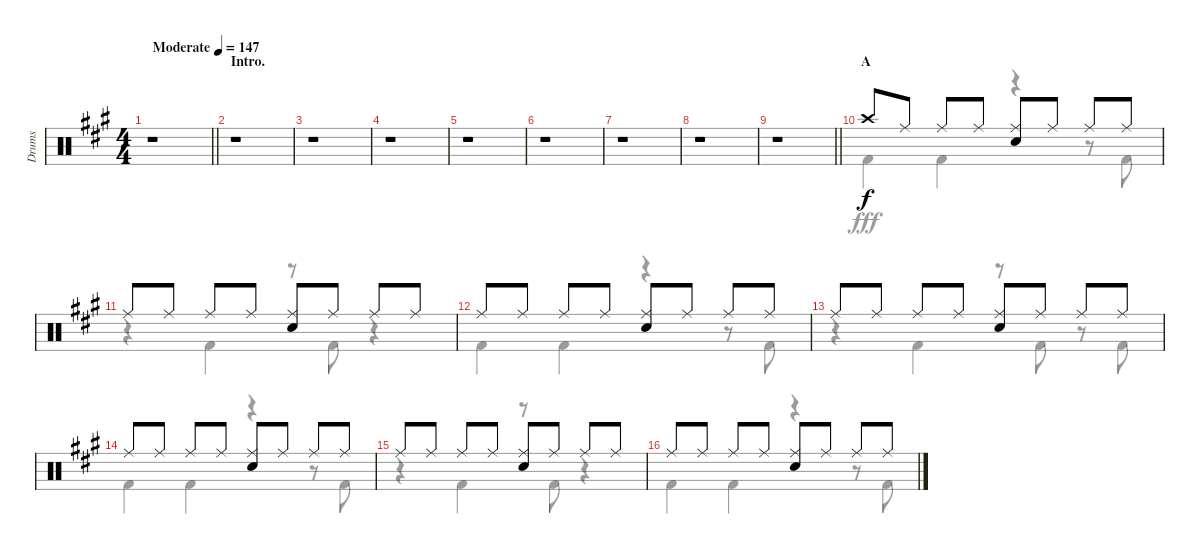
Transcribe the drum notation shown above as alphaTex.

\track ("Drums" "Drums") {instrument percussion}
\staff {score}
\articulation defaults
\voice
\ts (4 4)
\tempo (147 "Moderate")
\clef neutral
\barLineRight lightlight
\ks a
r.1{dy f} |
\section ("" "Intro.")
r.1 |
r.1 |
r.1 |
r.1 |
r.1 |
r.1 |
r.1 |
\barLineRight lightlight
r.1 |
\section ("" "A")
"Crash high (hit)".8 "Ride (middle)".8 "Ride (middle)".8 "Ride (middle)".8 ("Ride (middle)" "Snare (hit) 2").8 "Ride (middle)".8 "Ride (middle)".8 "Ride (middle)".8 |
"Ride (middle)".8 "Ride (middle)".8 "Ride (middle)".8 "Ride (middle)".8 ("Ride (middle)" "Snare (hit) 2").8 "Ride (middle)".8 "Ride (middle)".8 "Ride (middle)".8 |
"Ride (middle)".8 "Ride (middle)".8 "Ride (middle)".8 "Ride (middle)".8 ("Ride (middle)" "Snare (hit) 2").8 "Ride (middle)".8 "Ride (middle)".8 "Ride (middle)".8 |
"Ride (middle)".8 "Ride (middle)".8 "Ride (middle)".8 "Ride (middle)".8 ("Ride (middle)" "Snare (hit) 2").8 "Ride (middle)".8 "Ride (middle)".8 "Ride (middle)".8 |
"Ride (middle)".8 "Ride (middle)".8 "Ride (middle)".8 "Ride (middle)".8 ("Ride (middle)" "Snare (hit) 2").8 "Ride (middle)".8 "Ride (middle)".8 "Ride (middle)".8 |
"Ride (middle)".8 "Ride (middle)".8 "Ride (middle)".8 "Ride (middle)".8 ("Ride (middle)" "Snare (hit) 2").8 "Ride (middle)".8 "Ride (middle)".8 "Ride (middle)".8 |
"Ride (middle)".8 "Ride (middle)".8 "Ride (middle)".8 "Ride (middle)".8 ("Ride (middle)" "Snare (hit) 2").8 "Ride (middle)".8 "Ride (middle)".8 "Ride (middle)".8
\voice
\clef neutral
\ottava regular
\simile none
\barLineRight lightlight
\ks a
r.1{dy fff} |
r.1 |
r.1 |
r.1 |
r.1 |
r.1 |
r.1 |
r.1 |
\barLineRight lightlight
r.1 |
"Kick (hit) 2".4 "Kick (hit) 2".4 r.4 r.8 "Kick (hit) 2".8 |
r.4 "Kick (hit) 2".4 r.8 "Kick (hit) 2".8 r.4 |
"Kick (hit) 2".4 "Kick (hit) 2".4 r.4 r.8 "Kick (hit) 2".8 |
r.4 "Kick (hit) 2".4 r.8 "Kick (hit) 2".8 r.8 "Kick (hit) 2".8 |
"Kick (hit) 2".4 "Kick (hit) 2".4 r.4 r.8 "Kick (hit) 2".8 |
r.4 "Kick (hit) 2".4 r.8 "Kick (hit) 2".8 r.4 |
"Kick (hit) 2".4 "Kick (hit) 2".4 r.4 r.8 "Kick (hit) 2".8
